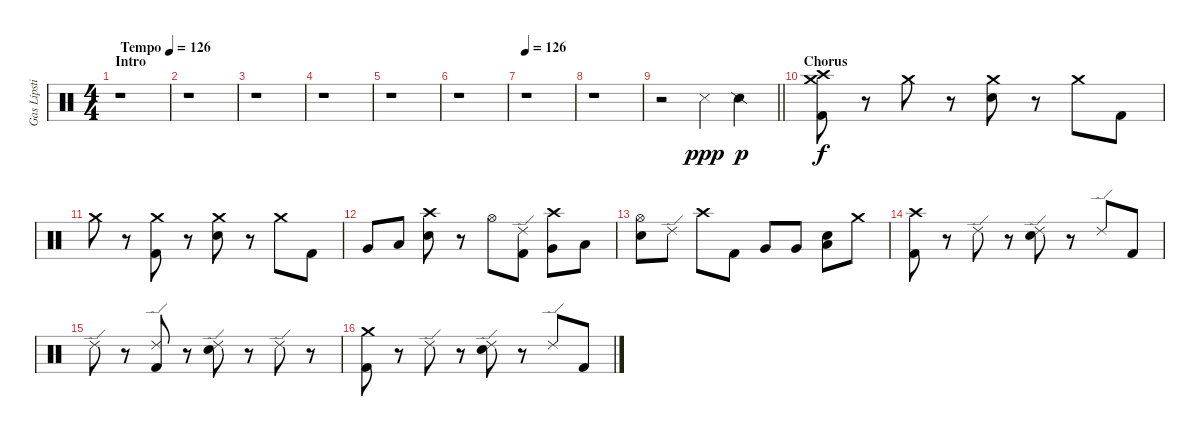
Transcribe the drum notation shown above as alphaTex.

\track ("Gas Lipstick (Drums)" "Gas Lipsti") {instrument percussion}
\staff {score}
\articulation defaults
\ts (4 4)
\section ("" "Intro")
\tempo (126 "Tempo")
\tempo 100
\tempo (126 "Tempo")
\clef neutral
\ks c
r.1{dy ppp} |
r.1 |
r.1 |
r.1 |
r.1 |
r.1 |
\tempo 126
r.1 |
r.1 |
\barLineRight lightlight
r.2 "Snare (side stick) 3".4 "Snare (side stick) 2".4{dy p} |
\section ("" "Chorus")
("Crash high (hit)" "Crash medium (hit)" "Kick (hit) 2").8{dy f} r.8 "Crash medium (hit)".8 r.8 ("Crash medium (hit)" "Snare (hit) 2").8 r.8 "Crash medium (hit)".8 "Kick (hit) 2".8 |
"Crash medium (hit)".8 r.8 ("Crash medium (hit)" "Kick (hit) 2").8 r.8 ("Crash medium (hit)" "Snare (hit) 2").8 r.8 "Crash medium (hit)".8 "Kick (hit) 2".8 |
"Very Low Tom (hit)".8 "Low Floor Tom (hit)".8 ("Crash high (hit)" "Snare (hit) 2").8 r.8 "Hi-Hat (open)".8 ("Ride (edge) 2" "Kick (hit) 2").8 ("Crash high (hit)" "Very Low Tom (hit)").8 "Low Floor Tom (hit)".8 |
("Hi-Hat (open)" "Snare (hit) 2").8 "Ride (edge) 2".8 "Crash high (hit)".8 "Kick (hit) 2".8 "Very Low Tom (hit)".8 "Very Low Tom (hit)".8 ("Low Floor Tom (hit)" "Snare (hit) 2").8 "Crash medium (hit)".8 |
("Crash high (hit)" "Kick (hit) 2").8 r.8 "Ride (edge) 2".8 r.8 ("Ride (edge) 2" "Snare (hit) 2").8 r.8 "Ride (edge) 2".8 "Kick (hit) 2".8 |
"Ride (edge) 2".8 r.8 ("Ride (edge) 2" "Kick (hit) 2").8 r.8 ("Ride (edge) 2" "Snare (hit) 2").8 r.8 "Ride (edge) 2".8 r.8 |
("Crash medium (hit)" "Kick (hit) 2").8 r.8 "Ride (edge) 2".8 r.8 ("Ride (edge) 2" "Snare (hit) 2").8 r.8 "Ride (edge) 2".8 "Kick (hit) 2".8
